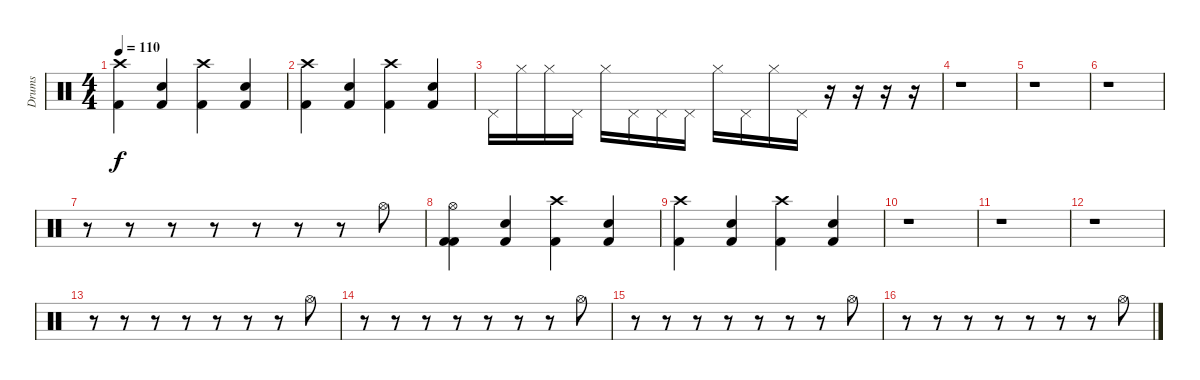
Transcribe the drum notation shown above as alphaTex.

\track ("Drums" "Drums") {instrument percussion}
\staff {score}
\articulation defaults
\ts (4 4)
\tempo 110
\clef neutral
\ks c
("Kick (hit) 2" "Crash high (hit)").4{dy f} ("Kick (hit) 2" "Snare (hit) 2").4 ("Kick (hit) 2" "Crash high (hit)").4 ("Kick (hit) 2" "Snare (hit) 2").4 |
("Kick (hit) 2" "Crash high (hit)").4 ("Kick (hit) 2" "Snare (hit) 2").4 ("Kick (hit) 2" "Crash high (hit)").4 ("Kick (hit) 2" "Snare (hit) 2").4 |
"Pedal Hi-Hat (hit)".16 "Hi-Hat (closed)".16 "Hi-Hat (closed)".16 "Pedal Hi-Hat (hit)".16 "Hi-Hat (closed)".16 "Pedal Hi-Hat (hit)".16 "Pedal Hi-Hat (hit)".16 "Pedal Hi-Hat (hit)".16 "Hi-Hat (closed)".16 "Pedal Hi-Hat (hit)".16 "Hi-Hat (closed)".16 "Pedal Hi-Hat (hit)".16 r.16 r.16 r.16 r.16 |
r.1 |
r.1 |
r.1 |
r.8 r.8 r.8 r.8 r.8 r.8 r.8 "Hi-Hat (open)".8 |
("Kick (hit) 2" "Kick (hit) 2" "Hi-Hat (open)").4 ("Kick (hit) 2" "Snare (hit) 2").4 ("Kick (hit) 2" "Crash high (hit)").4 ("Kick (hit) 2" "Snare (hit) 2").4 |
("Kick (hit) 2" "Crash high (hit)").4 ("Kick (hit) 2" "Snare (hit) 2").4 ("Kick (hit) 2" "Crash high (hit)").4 ("Kick (hit) 2" "Snare (hit) 2").4 |
r.1 |
r.1 |
r.1 |
r.8 r.8 r.8 r.8 r.8 r.8 r.8 "Hi-Hat (open)".8 |
r.8 r.8 r.8 r.8 r.8 r.8 r.8 "Hi-Hat (open)".8 |
r.8 r.8 r.8 r.8 r.8 r.8 r.8 "Hi-Hat (open)".8 |
r.8 r.8 r.8 r.8 r.8 r.8 r.8 "Hi-Hat (open)".8
